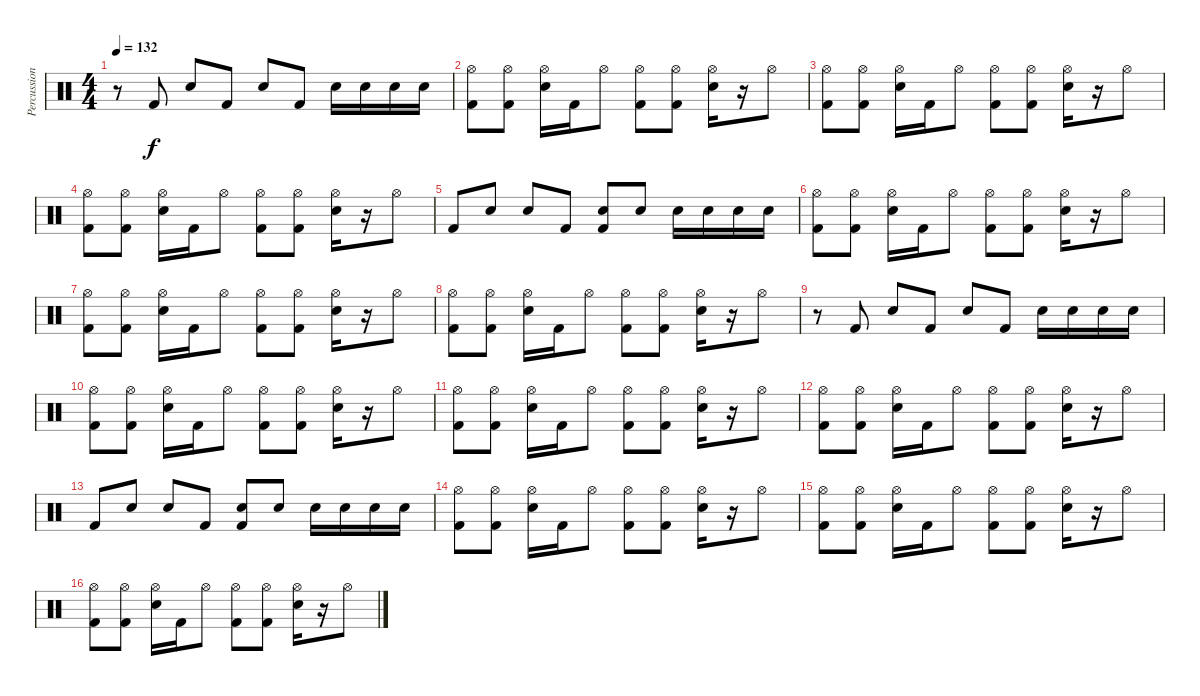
\track ("Percussion" "Percussion") {instrument percussion}
\staff {score}
\articulation defaults
\ts (4 4)
\tempo 132
\clef neutral
\ks c
r.8{dy f} "Kick (hit) 2".8 "Snare (hit) 2".8 "Kick (hit) 2".8 "Snare (hit) 2".8 "Kick (hit) 2".8 "Snare (hit) 2".16 "Snare (hit) 2".16 "Snare (hit) 2".16 "Snare (hit) 2".16 |
("Hi-Hat (open)" "Kick (hit) 2").8 ("Hi-Hat (open)" "Kick (hit) 2").8 ("Hi-Hat (open)" "Snare (hit) 2").16 "Kick (hit) 2".16 "Hi-Hat (open)".8 ("Hi-Hat (open)" "Kick (hit) 2").8 ("Hi-Hat (open)" "Kick (hit) 2").8 ("Hi-Hat (open)" "Snare (hit) 2").16 r.16 "Hi-Hat (open)".8 |
("Hi-Hat (open)" "Kick (hit) 2").8 ("Hi-Hat (open)" "Kick (hit) 2").8 ("Hi-Hat (open)" "Snare (hit) 2").16 "Kick (hit) 2".16 "Hi-Hat (open)".8 ("Hi-Hat (open)" "Kick (hit) 2").8 ("Hi-Hat (open)" "Kick (hit) 2").8 ("Hi-Hat (open)" "Snare (hit) 2").16 r.16 "Hi-Hat (open)".8 |
("Hi-Hat (open)" "Kick (hit) 2").8 ("Hi-Hat (open)" "Kick (hit) 2").8 ("Hi-Hat (open)" "Snare (hit) 2").16 "Kick (hit) 2".16 "Hi-Hat (open)".8 ("Hi-Hat (open)" "Kick (hit) 2").8 ("Hi-Hat (open)" "Kick (hit) 2").8 ("Hi-Hat (open)" "Snare (hit) 2").16 r.16 "Hi-Hat (open)".8 |
"Kick (hit) 2".8 "Snare (hit) 2".8 "Snare (hit) 2".8 "Kick (hit) 2".8 ("Snare (hit) 2" "Kick (hit) 2").8 "Snare (hit) 2".8 "Snare (hit) 2".16 "Snare (hit) 2".16 "Snare (hit) 2".16 "Snare (hit) 2".16 |
("Hi-Hat (open)" "Kick (hit) 2").8 ("Hi-Hat (open)" "Kick (hit) 2").8 ("Hi-Hat (open)" "Snare (hit) 2").16 "Kick (hit) 2".16 "Hi-Hat (open)".8 ("Hi-Hat (open)" "Kick (hit) 2").8 ("Hi-Hat (open)" "Kick (hit) 2").8 ("Hi-Hat (open)" "Snare (hit) 2").16 r.16 "Hi-Hat (open)".8 |
("Hi-Hat (open)" "Kick (hit) 2").8 ("Hi-Hat (open)" "Kick (hit) 2").8 ("Hi-Hat (open)" "Snare (hit) 2").16 "Kick (hit) 2".16 "Hi-Hat (open)".8 ("Hi-Hat (open)" "Kick (hit) 2").8 ("Hi-Hat (open)" "Kick (hit) 2").8 ("Hi-Hat (open)" "Snare (hit) 2").16 r.16 "Hi-Hat (open)".8 |
("Hi-Hat (open)" "Kick (hit) 2").8 ("Hi-Hat (open)" "Kick (hit) 2").8 ("Hi-Hat (open)" "Snare (hit) 2").16 "Kick (hit) 2".16 "Hi-Hat (open)".8 ("Hi-Hat (open)" "Kick (hit) 2").8 ("Hi-Hat (open)" "Kick (hit) 2").8 ("Hi-Hat (open)" "Snare (hit) 2").16 r.16 "Hi-Hat (open)".8 |
r.8 "Kick (hit) 2".8 "Snare (hit) 2".8 "Kick (hit) 2".8 "Snare (hit) 2".8 "Kick (hit) 2".8 "Snare (hit) 2".16 "Snare (hit) 2".16 "Snare (hit) 2".16 "Snare (hit) 2".16 |
("Hi-Hat (open)" "Kick (hit) 2").8 ("Hi-Hat (open)" "Kick (hit) 2").8 ("Hi-Hat (open)" "Snare (hit) 2").16 "Kick (hit) 2".16 "Hi-Hat (open)".8 ("Hi-Hat (open)" "Kick (hit) 2").8 ("Hi-Hat (open)" "Kick (hit) 2").8 ("Hi-Hat (open)" "Snare (hit) 2").16 r.16 "Hi-Hat (open)".8 |
("Hi-Hat (open)" "Kick (hit) 2").8 ("Hi-Hat (open)" "Kick (hit) 2").8 ("Hi-Hat (open)" "Snare (hit) 2").16 "Kick (hit) 2".16 "Hi-Hat (open)".8 ("Hi-Hat (open)" "Kick (hit) 2").8 ("Hi-Hat (open)" "Kick (hit) 2").8 ("Hi-Hat (open)" "Snare (hit) 2").16 r.16 "Hi-Hat (open)".8 |
("Hi-Hat (open)" "Kick (hit) 2").8 ("Hi-Hat (open)" "Kick (hit) 2").8 ("Hi-Hat (open)" "Snare (hit) 2").16 "Kick (hit) 2".16 "Hi-Hat (open)".8 ("Hi-Hat (open)" "Kick (hit) 2").8 ("Hi-Hat (open)" "Kick (hit) 2").8 ("Hi-Hat (open)" "Snare (hit) 2").16 r.16 "Hi-Hat (open)".8 |
"Kick (hit) 2".8 "Snare (hit) 2".8 "Snare (hit) 2".8 "Kick (hit) 2".8 ("Snare (hit) 2" "Kick (hit) 2").8 "Snare (hit) 2".8 "Snare (hit) 2".16 "Snare (hit) 2".16 "Snare (hit) 2".16 "Snare (hit) 2".16 |
("Hi-Hat (open)" "Kick (hit) 2").8 ("Hi-Hat (open)" "Kick (hit) 2").8 ("Hi-Hat (open)" "Snare (hit) 2").16 "Kick (hit) 2".16 "Hi-Hat (open)".8 ("Hi-Hat (open)" "Kick (hit) 2").8 ("Hi-Hat (open)" "Kick (hit) 2").8 ("Hi-Hat (open)" "Snare (hit) 2").16 r.16 "Hi-Hat (open)".8 |
("Hi-Hat (open)" "Kick (hit) 2").8 ("Hi-Hat (open)" "Kick (hit) 2").8 ("Hi-Hat (open)" "Snare (hit) 2").16 "Kick (hit) 2".16 "Hi-Hat (open)".8 ("Hi-Hat (open)" "Kick (hit) 2").8 ("Hi-Hat (open)" "Kick (hit) 2").8 ("Hi-Hat (open)" "Snare (hit) 2").16 r.16 "Hi-Hat (open)".8 |
("Hi-Hat (open)" "Kick (hit) 2").8 ("Hi-Hat (open)" "Kick (hit) 2").8 ("Hi-Hat (open)" "Snare (hit) 2").16 "Kick (hit) 2".16 "Hi-Hat (open)".8 ("Hi-Hat (open)" "Kick (hit) 2").8 ("Hi-Hat (open)" "Kick (hit) 2").8 ("Hi-Hat (open)" "Snare (hit) 2").16 r.16 "Hi-Hat (open)".8
